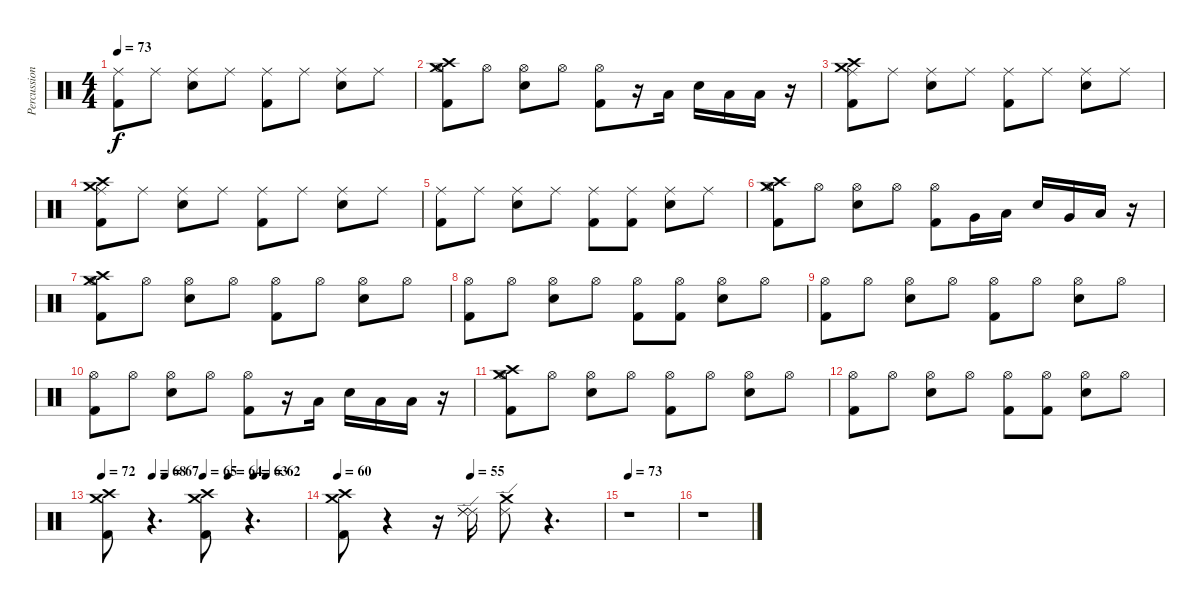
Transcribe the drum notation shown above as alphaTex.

\track ("Percussions" "Percussion") {instrument percussion}
\staff {score}
\articulation defaults
\ts (4 4)
\tempo 73
\clef neutral
\ks c
("Ride (middle)" "Kick (hit) 2").8{dy f} "Ride (middle)".8 ("Ride (middle)" "Electric Snare (hit)").8 "Ride (middle)".8 ("Ride (middle)" "Kick (hit) 2").8 "Ride (middle)".8 ("Ride (middle)" "Electric Snare (hit)").8 "Ride (middle)".8 |
("Crash medium (hit)" "Crash high (hit)" "Hi-Hat (open)" "Kick (hit) 2").8 "Hi-Hat (open)".8 ("Hi-Hat (open)" "Electric Snare (hit)").8 "Hi-Hat (open)".8 ("Hi-Hat (open)" "Kick (hit) 2").8 r.16 "Low Floor Tom (hit)".16 "Snare (hit) 2".16 "Low Tom (hit)".16 "Low Floor Tom (hit)".16 r.16 |
("Crash medium (hit)" "Ride (middle)" "Crash high (hit)" "Kick (hit) 2").8 "Ride (middle)".8 ("Ride (middle)" "Electric Snare (hit)").8 "Ride (middle)".8 ("Ride (middle)" "Kick (hit) 2").8 "Ride (middle)".8 ("Ride (middle)" "Electric Snare (hit)").8 "Ride (middle)".8 |
("Crash medium (hit)" "Ride (middle)" "Crash high (hit)" "Kick (hit) 2").8 "Ride (middle)".8 ("Ride (middle)" "Electric Snare (hit)").8 "Ride (middle)".8 ("Ride (middle)" "Kick (hit) 2").8 "Ride (middle)".8 ("Ride (middle)" "Electric Snare (hit)").8 "Ride (middle)".8 |
("Ride (middle)" "Kick (hit) 2").8 "Ride (middle)".8 ("Ride (middle)" "Electric Snare (hit)").8 "Ride (middle)".8 ("Ride (middle)" "Kick (hit) 2").8 ("Ride (middle)" "Kick (hit) 2").8 ("Ride (middle)" "Electric Snare (hit)").8 "Ride (middle)".8 |
("Crash medium (hit)" "Crash high (hit)" "Hi-Hat (open)" "Kick (hit) 2").8 "Hi-Hat (open)".8 ("Hi-Hat (open)" "Electric Snare (hit)").8 "Hi-Hat (open)".8 ("Hi-Hat (open)" "Kick (hit) 2").8 "Very Low Tom (hit)".16 "Low Floor Tom (hit)".16 "Snare (hit) 2".16 "Very Low Tom (hit)".16 "Low Floor Tom (hit)".16 r.16 |
("Crash medium (hit)" "Crash high (hit)" "Hi-Hat (open)" "Kick (hit) 2").8 "Hi-Hat (open)".8 ("Hi-Hat (open)" "Electric Snare (hit)").8 "Hi-Hat (open)".8 ("Hi-Hat (open)" "Kick (hit) 2").8 "Hi-Hat (open)".8 ("Hi-Hat (open)" "Electric Snare (hit)").8 "Hi-Hat (open)".8 |
("Hi-Hat (open)" "Kick (hit) 2").8 "Hi-Hat (open)".8 ("Hi-Hat (open)" "Electric Snare (hit)").8 "Hi-Hat (open)".8 ("Hi-Hat (open)" "Kick (hit) 2").8 ("Hi-Hat (open)" "Kick (hit) 2").8 ("Hi-Hat (open)" "Electric Snare (hit)").8 "Hi-Hat (open)".8 |
("Hi-Hat (open)" "Kick (hit) 2").8 "Hi-Hat (open)".8 ("Hi-Hat (open)" "Electric Snare (hit)").8 "Hi-Hat (open)".8 ("Hi-Hat (open)" "Kick (hit) 2").8 "Hi-Hat (open)".8 ("Hi-Hat (open)" "Electric Snare (hit)").8 "Hi-Hat (open)".8 |
("Hi-Hat (open)" "Kick (hit) 2").8 "Hi-Hat (open)".8 ("Hi-Hat (open)" "Electric Snare (hit)").8 "Hi-Hat (open)".8 ("Hi-Hat (open)" "Kick (hit) 2").8 r.16 "Low Floor Tom (hit)".16 "Snare (hit) 2".16 "Low Tom (hit)".16 "Low Floor Tom (hit)".16 r.16 |
("Crash medium (hit)" "Crash high (hit)" "Hi-Hat (open)" "Kick (hit) 2").8 "Hi-Hat (open)".8 ("Hi-Hat (open)" "Electric Snare (hit)").8 "Hi-Hat (open)".8 ("Hi-Hat (open)" "Kick (hit) 2").8 "Hi-Hat (open)".8 ("Hi-Hat (open)" "Electric Snare (hit)").8 "Hi-Hat (open)".8 |
("Hi-Hat (open)" "Kick (hit) 2").8 "Hi-Hat (open)".8 ("Hi-Hat (open)" "Electric Snare (hit)").8 "Hi-Hat (open)".8 ("Hi-Hat (open)" "Kick (hit) 2").8 ("Hi-Hat (open)" "Kick (hit) 2").8 ("Hi-Hat (open)" "Electric Snare (hit)").8 "Hi-Hat (open)".8 |
\tempo 72
\tempo (65 0.5)
\tempo (68 0.25)
\tempo (67 0.3125)
\tempo (64 0.625)
\tempo (63 0.75)
\tempo (62 0.8125)
("Crash medium (hit)" "Crash high (hit)" "Kick (hit) 2").8 r.4{d} ("Crash medium (hit)" "Crash high (hit)" "Kick (hit) 2").8 r.4{d} |
\tempo 60
\tempo (55 0.5)
("Crash medium (hit)" "Crash high (hit)" "Kick (hit) 2").8 r.4 r.16 ("Ride (edge) 2" "Ride (edge) 2" "Ride (edge) 2").16 ("Ride (edge) 2" "Crash medium (hit)").8 r.4{d} |
\tempo 73
r.1 |
r.1
